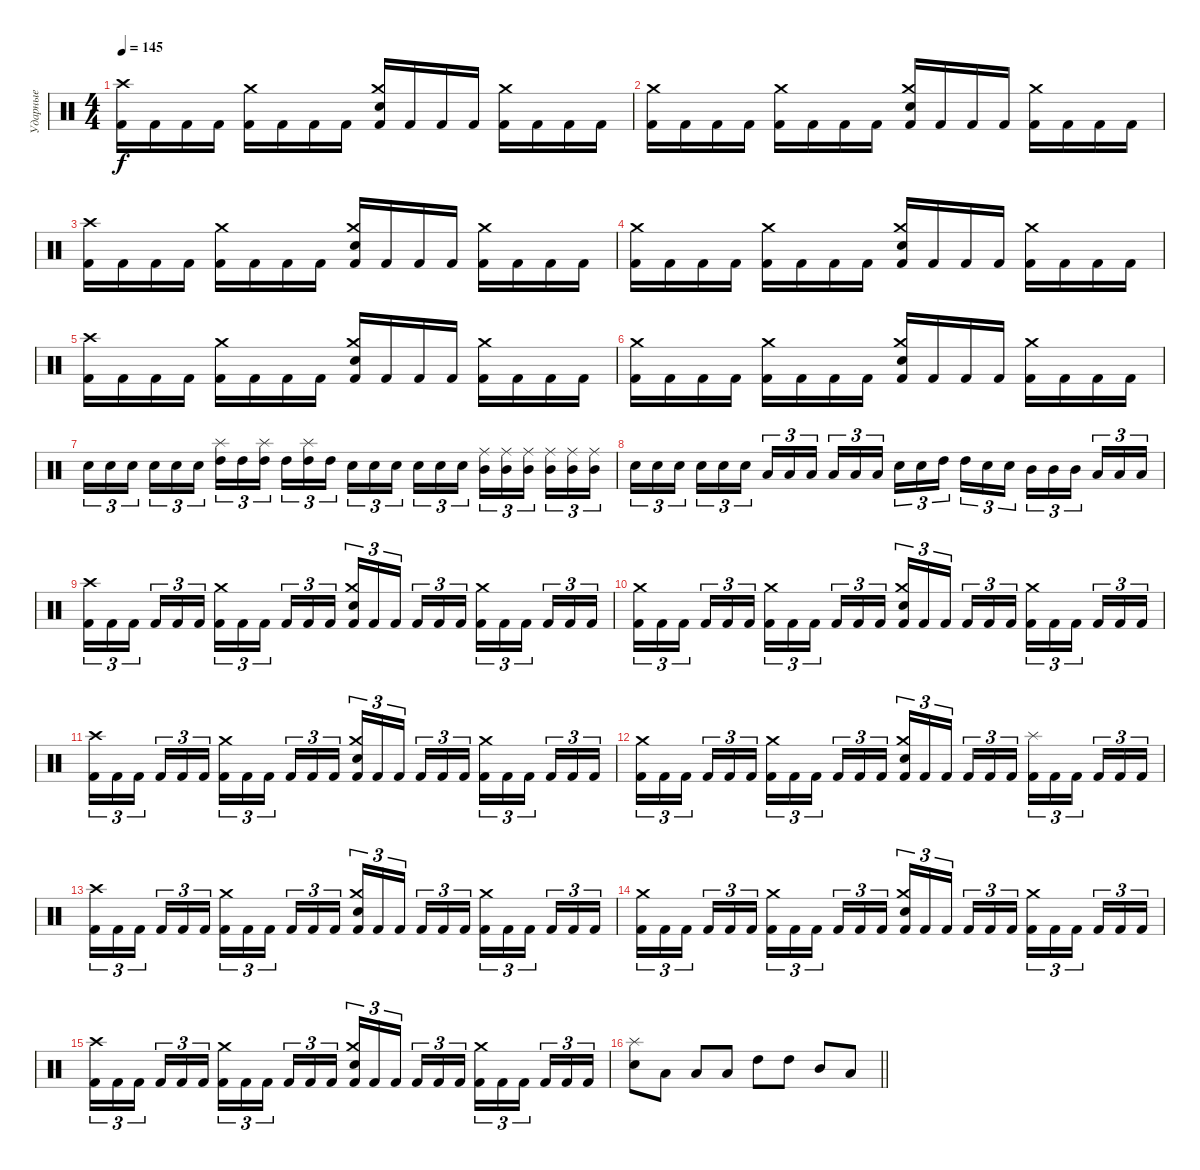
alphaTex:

\track ("Ударные" "Ударные") {instrument percussion}
\staff {score}
\articulation defaults
\ts (4 4)
\tempo 145
\clef neutral
\ks c
("Crash high (hit)" "Kick (hit) 2").16{dy f} "Kick (hit) 2".16 "Kick (hit) 2".16 "Kick (hit) 2".16 ("Crash medium (hit)" "Kick (hit) 2").16 "Kick (hit) 2".16 "Kick (hit) 2".16 "Kick (hit) 2".16 ("Crash medium (hit)" "Electric Snare (hit)" "Kick (hit) 2").16 "Kick (hit) 2".16 "Kick (hit) 2".16 "Kick (hit) 2".16 ("Crash medium (hit)" "Kick (hit) 2").16 "Kick (hit) 2".16 "Kick (hit) 2".16 "Kick (hit) 2".16 |
("Crash medium (hit)" "Kick (hit) 2").16 "Kick (hit) 2".16 "Kick (hit) 2".16 "Kick (hit) 2".16 ("Crash medium (hit)" "Kick (hit) 2").16 "Kick (hit) 2".16 "Kick (hit) 2".16 "Kick (hit) 2".16 ("Crash medium (hit)" "Electric Snare (hit)" "Kick (hit) 2").16 "Kick (hit) 2".16 "Kick (hit) 2".16 "Kick (hit) 2".16 ("Crash medium (hit)" "Kick (hit) 2").16 "Kick (hit) 2".16 "Kick (hit) 2".16 "Kick (hit) 2".16 |
("Crash high (hit)" "Kick (hit) 2").16 "Kick (hit) 2".16 "Kick (hit) 2".16 "Kick (hit) 2".16 ("Crash medium (hit)" "Kick (hit) 2").16 "Kick (hit) 2".16 "Kick (hit) 2".16 "Kick (hit) 2".16 ("Crash medium (hit)" "Electric Snare (hit)" "Kick (hit) 2").16 "Kick (hit) 2".16 "Kick (hit) 2".16 "Kick (hit) 2".16 ("Crash medium (hit)" "Kick (hit) 2").16 "Kick (hit) 2".16 "Kick (hit) 2".16 "Kick (hit) 2".16 |
("Crash medium (hit)" "Kick (hit) 2").16 "Kick (hit) 2".16 "Kick (hit) 2".16 "Kick (hit) 2".16 ("Crash medium (hit)" "Kick (hit) 2").16 "Kick (hit) 2".16 "Kick (hit) 2".16 "Kick (hit) 2".16 ("Crash medium (hit)" "Electric Snare (hit)" "Kick (hit) 2").16 "Kick (hit) 2".16 "Kick (hit) 2".16 "Kick (hit) 2".16 ("Crash medium (hit)" "Kick (hit) 2").16 "Kick (hit) 2".16 "Kick (hit) 2".16 "Kick (hit) 2".16 |
("Crash high (hit)" "Kick (hit) 2").16 "Kick (hit) 2".16 "Kick (hit) 2".16 "Kick (hit) 2".16 ("Crash medium (hit)" "Kick (hit) 2").16 "Kick (hit) 2".16 "Kick (hit) 2".16 "Kick (hit) 2".16 ("Crash medium (hit)" "Electric Snare (hit)" "Kick (hit) 2").16 "Kick (hit) 2".16 "Kick (hit) 2".16 "Kick (hit) 2".16 ("Crash medium (hit)" "Kick (hit) 2").16 "Kick (hit) 2".16 "Kick (hit) 2".16 "Kick (hit) 2".16 |
("Crash medium (hit)" "Kick (hit) 2").16 "Kick (hit) 2".16 "Kick (hit) 2".16 "Kick (hit) 2".16 ("Crash medium (hit)" "Kick (hit) 2").16 "Kick (hit) 2".16 "Kick (hit) 2".16 "Kick (hit) 2".16 ("Crash medium (hit)" "Electric Snare (hit)" "Kick (hit) 2").16 "Kick (hit) 2".16 "Kick (hit) 2".16 "Kick (hit) 2".16 ("Crash medium (hit)" "Kick (hit) 2").16 "Kick (hit) 2".16 "Kick (hit) 2".16 "Kick (hit) 2".16 |
"Electric Snare (hit)".16{tu (3 2)} "Electric Snare (hit)".16{tu (3 2)} "Electric Snare (hit)".16{tu (3 2) beam splitsecondary} "Electric Snare (hit)".16{tu (3 2)} "Electric Snare (hit)".16{tu (3 2)} "Electric Snare (hit)".16{tu (3 2)} ("Splash (hit)" "High Tom (hit)").16{tu (3 2)} "High Tom (hit)".16{tu (3 2)} ("Splash (hit)" "High Tom (hit)").16{tu (3 2) beam splitsecondary} "High Tom (hit)".16{tu (3 2)} ("Splash (hit)" "High Tom (hit)").16{tu (3 2)} "High Tom (hit)".16{tu (3 2)} "Electric Snare (hit)".16{tu (3 2)} "Electric Snare (hit)".16{tu (3 2)} "Electric Snare (hit)".16{tu (3 2) beam splitsecondary} "Electric Snare (hit)".16{tu (3 2)} "Electric Snare (hit)".16{tu (3 2)} "Electric Snare (hit)".16{tu (3 2)} ("Ride (middle)" "Mid Tom (hit)").16{tu (3 2)} ("Ride (middle)" "Mid Tom (hit)").16{tu (3 2)} ("Ride (middle)" "Mid Tom (hit)").16{tu (3 2) beam splitsecondary} ("Ride (middle)" "Mid Tom (hit)").16{tu (3 2)} ("Ride (middle)" "Mid Tom (hit)").16{tu (3 2)} ("Ride (middle)" "Mid Tom (hit)").16{tu (3 2)} |
"Electric Snare (hit)".16{tu (3 2)} "Electric Snare (hit)".16{tu (3 2)} "Electric Snare (hit)".16{tu (3 2) beam splitsecondary} "Electric Snare (hit)".16{tu (3 2)} "Electric Snare (hit)".16{tu (3 2)} "Electric Snare (hit)".16{tu (3 2)} "Low Tom (hit)".16{tu (3 2)} "Low Tom (hit)".16{tu (3 2)} "Low Tom (hit)".16{tu (3 2) beam splitsecondary} "Low Tom (hit)".16{tu (3 2)} "Low Tom (hit)".16{tu (3 2)} "Low Tom (hit)".16{tu (3 2)} "Electric Snare (hit)".16{tu (3 2)} "Electric Snare (hit)".16{tu (3 2)} "High Tom (hit)".16{tu (3 2) beam splitsecondary} "High Tom (hit)".16{tu (3 2)} "Electric Snare (hit)".16{tu (3 2)} "Electric Snare (hit)".16{tu (3 2)} "Mid Tom (hit)".16{tu (3 2)} "Mid Tom (hit)".16{tu (3 2)} "Mid Tom (hit)".16{tu (3 2) beam splitsecondary} "Low Tom (hit)".16{tu (3 2)} "Low Tom (hit)".16{tu (3 2)} "Low Tom (hit)".16{tu (3 2)} |
("Crash high (hit)" "Kick (hit) 2").16{tu (3 2)} "Kick (hit) 2".16{tu (3 2)} "Kick (hit) 2".16{tu (3 2) beam splitsecondary} "Kick (hit) 2".16{tu (3 2)} "Kick (hit) 2".16{tu (3 2)} "Kick (hit) 2".16{tu (3 2)} ("Crash medium (hit)" "Kick (hit) 2").16{tu (3 2)} "Kick (hit) 2".16{tu (3 2)} "Kick (hit) 2".16{tu (3 2) beam splitsecondary} "Kick (hit) 2".16{tu (3 2)} "Kick (hit) 2".16{tu (3 2)} "Kick (hit) 2".16{tu (3 2)} ("Crash medium (hit)" "Electric Snare (hit)" "Kick (hit) 2").16{tu (3 2)} "Kick (hit) 2".16{tu (3 2)} "Kick (hit) 2".16{tu (3 2) beam splitsecondary} "Kick (hit) 2".16{tu (3 2)} "Kick (hit) 2".16{tu (3 2)} "Kick (hit) 2".16{tu (3 2)} ("Crash medium (hit)" "Kick (hit) 2").16{tu (3 2)} "Kick (hit) 2".16{tu (3 2)} "Kick (hit) 2".16{tu (3 2) beam splitsecondary} "Kick (hit) 2".16{tu (3 2)} "Kick (hit) 2".16{tu (3 2)} "Kick (hit) 2".16{tu (3 2)} |
("Crash medium (hit)" "Kick (hit) 2").16{tu (3 2)} "Kick (hit) 2".16{tu (3 2)} "Kick (hit) 2".16{tu (3 2) beam splitsecondary} "Kick (hit) 2".16{tu (3 2)} "Kick (hit) 2".16{tu (3 2)} "Kick (hit) 2".16{tu (3 2)} ("Crash medium (hit)" "Kick (hit) 2").16{tu (3 2)} "Kick (hit) 2".16{tu (3 2)} "Kick (hit) 2".16{tu (3 2) beam splitsecondary} "Kick (hit) 2".16{tu (3 2)} "Kick (hit) 2".16{tu (3 2)} "Kick (hit) 2".16{tu (3 2)} ("Crash medium (hit)" "Electric Snare (hit)" "Kick (hit) 2").16{tu (3 2)} "Kick (hit) 2".16{tu (3 2)} "Kick (hit) 2".16{tu (3 2) beam splitsecondary} "Kick (hit) 2".16{tu (3 2)} "Kick (hit) 2".16{tu (3 2)} "Kick (hit) 2".16{tu (3 2)} ("Crash medium (hit)" "Kick (hit) 2").16{tu (3 2)} "Kick (hit) 2".16{tu (3 2)} "Kick (hit) 2".16{tu (3 2) beam splitsecondary} "Kick (hit) 2".16{tu (3 2)} "Kick (hit) 2".16{tu (3 2)} "Kick (hit) 2".16{tu (3 2)} |
("Crash high (hit)" "Kick (hit) 2").16{tu (3 2)} "Kick (hit) 2".16{tu (3 2)} "Kick (hit) 2".16{tu (3 2) beam splitsecondary} "Kick (hit) 2".16{tu (3 2)} "Kick (hit) 2".16{tu (3 2)} "Kick (hit) 2".16{tu (3 2)} ("Crash medium (hit)" "Kick (hit) 2").16{tu (3 2)} "Kick (hit) 2".16{tu (3 2)} "Kick (hit) 2".16{tu (3 2) beam splitsecondary} "Kick (hit) 2".16{tu (3 2)} "Kick (hit) 2".16{tu (3 2)} "Kick (hit) 2".16{tu (3 2)} ("Crash medium (hit)" "Electric Snare (hit)" "Kick (hit) 2").16{tu (3 2)} "Kick (hit) 2".16{tu (3 2)} "Kick (hit) 2".16{tu (3 2) beam splitsecondary} "Kick (hit) 2".16{tu (3 2)} "Kick (hit) 2".16{tu (3 2)} "Kick (hit) 2".16{tu (3 2)} ("Crash medium (hit)" "Kick (hit) 2").16{tu (3 2)} "Kick (hit) 2".16{tu (3 2)} "Kick (hit) 2".16{tu (3 2) beam splitsecondary} "Kick (hit) 2".16{tu (3 2)} "Kick (hit) 2".16{tu (3 2)} "Kick (hit) 2".16{tu (3 2)} |
("Crash medium (hit)" "Kick (hit) 2").16{tu (3 2)} "Kick (hit) 2".16{tu (3 2)} "Kick (hit) 2".16{tu (3 2) beam splitsecondary} "Kick (hit) 2".16{tu (3 2)} "Kick (hit) 2".16{tu (3 2)} "Kick (hit) 2".16{tu (3 2)} ("Crash medium (hit)" "Kick (hit) 2").16{tu (3 2)} "Kick (hit) 2".16{tu (3 2)} "Kick (hit) 2".16{tu (3 2) beam splitsecondary} "Kick (hit) 2".16{tu (3 2)} "Kick (hit) 2".16{tu (3 2)} "Kick (hit) 2".16{tu (3 2)} ("Crash medium (hit)" "Electric Snare (hit)" "Kick (hit) 2").16{tu (3 2)} "Kick (hit) 2".16{tu (3 2)} "Kick (hit) 2".16{tu (3 2) beam splitsecondary} "Kick (hit) 2".16{tu (3 2)} "Kick (hit) 2".16{tu (3 2)} "Kick (hit) 2".16{tu (3 2)} ("Splash (hit)" "Kick (hit) 2").16{tu (3 2)} "Kick (hit) 2".16{tu (3 2)} "Kick (hit) 2".16{tu (3 2) beam splitsecondary} "Kick (hit) 2".16{tu (3 2)} "Kick (hit) 2".16{tu (3 2)} "Kick (hit) 2".16{tu (3 2)} |
("Crash high (hit)" "Kick (hit) 2").16{tu (3 2)} "Kick (hit) 2".16{tu (3 2)} "Kick (hit) 2".16{tu (3 2) beam splitsecondary} "Kick (hit) 2".16{tu (3 2)} "Kick (hit) 2".16{tu (3 2)} "Kick (hit) 2".16{tu (3 2)} ("Crash medium (hit)" "Kick (hit) 2").16{tu (3 2)} "Kick (hit) 2".16{tu (3 2)} "Kick (hit) 2".16{tu (3 2) beam splitsecondary} "Kick (hit) 2".16{tu (3 2)} "Kick (hit) 2".16{tu (3 2)} "Kick (hit) 2".16{tu (3 2)} ("Crash medium (hit)" "Electric Snare (hit)" "Kick (hit) 2").16{tu (3 2)} "Kick (hit) 2".16{tu (3 2)} "Kick (hit) 2".16{tu (3 2) beam splitsecondary} "Kick (hit) 2".16{tu (3 2)} "Kick (hit) 2".16{tu (3 2)} "Kick (hit) 2".16{tu (3 2)} ("Crash medium (hit)" "Kick (hit) 2").16{tu (3 2)} "Kick (hit) 2".16{tu (3 2)} "Kick (hit) 2".16{tu (3 2) beam splitsecondary} "Kick (hit) 2".16{tu (3 2)} "Kick (hit) 2".16{tu (3 2)} "Kick (hit) 2".16{tu (3 2)} |
("Crash medium (hit)" "Kick (hit) 2").16{tu (3 2)} "Kick (hit) 2".16{tu (3 2)} "Kick (hit) 2".16{tu (3 2) beam splitsecondary} "Kick (hit) 2".16{tu (3 2)} "Kick (hit) 2".16{tu (3 2)} "Kick (hit) 2".16{tu (3 2)} ("Crash medium (hit)" "Kick (hit) 2").16{tu (3 2)} "Kick (hit) 2".16{tu (3 2)} "Kick (hit) 2".16{tu (3 2) beam splitsecondary} "Kick (hit) 2".16{tu (3 2)} "Kick (hit) 2".16{tu (3 2)} "Kick (hit) 2".16{tu (3 2)} ("Crash medium (hit)" "Electric Snare (hit)" "Kick (hit) 2").16{tu (3 2)} "Kick (hit) 2".16{tu (3 2)} "Kick (hit) 2".16{tu (3 2) beam splitsecondary} "Kick (hit) 2".16{tu (3 2)} "Kick (hit) 2".16{tu (3 2)} "Kick (hit) 2".16{tu (3 2)} ("Crash medium (hit)" "Kick (hit) 2").16{tu (3 2)} "Kick (hit) 2".16{tu (3 2)} "Kick (hit) 2".16{tu (3 2) beam splitsecondary} "Kick (hit) 2".16{tu (3 2)} "Kick (hit) 2".16{tu (3 2)} "Kick (hit) 2".16{tu (3 2)} |
("Crash high (hit)" "Kick (hit) 2").16{tu (3 2)} "Kick (hit) 2".16{tu (3 2)} "Kick (hit) 2".16{tu (3 2) beam splitsecondary} "Kick (hit) 2".16{tu (3 2)} "Kick (hit) 2".16{tu (3 2)} "Kick (hit) 2".16{tu (3 2)} ("Crash medium (hit)" "Kick (hit) 2").16{tu (3 2)} "Kick (hit) 2".16{tu (3 2)} "Kick (hit) 2".16{tu (3 2) beam splitsecondary} "Kick (hit) 2".16{tu (3 2)} "Kick (hit) 2".16{tu (3 2)} "Kick (hit) 2".16{tu (3 2)} ("Crash medium (hit)" "Electric Snare (hit)" "Kick (hit) 2").16{tu (3 2)} "Kick (hit) 2".16{tu (3 2)} "Kick (hit) 2".16{tu (3 2) beam splitsecondary} "Kick (hit) 2".16{tu (3 2)} "Kick (hit) 2".16{tu (3 2)} "Kick (hit) 2".16{tu (3 2)} ("Crash medium (hit)" "Kick (hit) 2").16{tu (3 2)} "Kick (hit) 2".16{tu (3 2)} "Kick (hit) 2".16{tu (3 2) beam splitsecondary} "Kick (hit) 2".16{tu (3 2)} "Kick (hit) 2".16{tu (3 2)} "Kick (hit) 2".16{tu (3 2)} |
\barLineRight lightlight
("Splash (hit)" "Electric Snare (hit)").8 "Low Tom (hit)".8 "Low Tom (hit)".8 "Low Tom (hit)".8 "High Tom (hit)".8 "High Tom (hit)".8 "Mid Tom (hit)".8 "Low Tom (hit)".8
